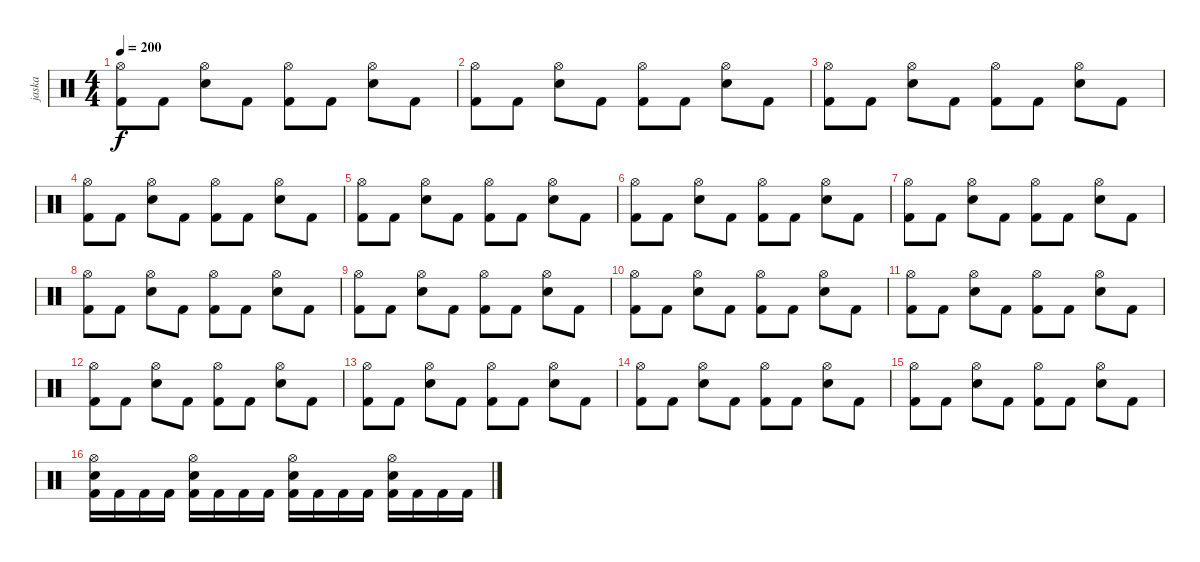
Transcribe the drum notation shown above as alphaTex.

\track ("jaska" "jaska") {instrument percussion}
\staff {score}
\articulation defaults
\ts (4 4)
\tempo 200
\clef neutral
\ks c
("Hi-Hat (open)" "Kick (hit) 2").8{dy f} "Kick (hit) 2".8 ("Hi-Hat (open)" "Electric Snare (hit)").8 "Kick (hit) 2".8 ("Hi-Hat (open)" "Kick (hit) 2").8 "Kick (hit) 2".8 ("Hi-Hat (open)" "Electric Snare (hit)").8 "Kick (hit) 2".8 |
("Hi-Hat (open)" "Kick (hit) 2").8 "Kick (hit) 2".8 ("Hi-Hat (open)" "Electric Snare (hit)").8 "Kick (hit) 2".8 ("Hi-Hat (open)" "Kick (hit) 2").8 "Kick (hit) 2".8 ("Hi-Hat (open)" "Electric Snare (hit)").8 "Kick (hit) 2".8 |
("Hi-Hat (open)" "Kick (hit) 2").8 "Kick (hit) 2".8 ("Hi-Hat (open)" "Electric Snare (hit)").8 "Kick (hit) 2".8 ("Hi-Hat (open)" "Kick (hit) 2").8 "Kick (hit) 2".8 ("Hi-Hat (open)" "Electric Snare (hit)").8 "Kick (hit) 2".8 |
("Hi-Hat (open)" "Kick (hit) 2").8 "Kick (hit) 2".8 ("Hi-Hat (open)" "Electric Snare (hit)").8 "Kick (hit) 2".8 ("Hi-Hat (open)" "Kick (hit) 2").8 "Kick (hit) 2".8 ("Hi-Hat (open)" "Electric Snare (hit)").8 "Kick (hit) 2".8 |
("Hi-Hat (open)" "Kick (hit) 2").8 "Kick (hit) 2".8 ("Hi-Hat (open)" "Electric Snare (hit)").8 "Kick (hit) 2".8 ("Hi-Hat (open)" "Kick (hit) 2").8 "Kick (hit) 2".8 ("Hi-Hat (open)" "Electric Snare (hit)").8 "Kick (hit) 2".8 |
("Hi-Hat (open)" "Kick (hit) 2").8 "Kick (hit) 2".8 ("Hi-Hat (open)" "Electric Snare (hit)").8 "Kick (hit) 2".8 ("Hi-Hat (open)" "Kick (hit) 2").8 "Kick (hit) 2".8 ("Hi-Hat (open)" "Electric Snare (hit)").8 "Kick (hit) 2".8 |
("Hi-Hat (open)" "Kick (hit) 2").8 "Kick (hit) 2".8 ("Hi-Hat (open)" "Electric Snare (hit)").8 "Kick (hit) 2".8 ("Hi-Hat (open)" "Kick (hit) 2").8 "Kick (hit) 2".8 ("Hi-Hat (open)" "Electric Snare (hit)").8 "Kick (hit) 2".8 |
("Hi-Hat (open)" "Kick (hit) 2").8 "Kick (hit) 2".8 ("Hi-Hat (open)" "Electric Snare (hit)").8 "Kick (hit) 2".8 ("Hi-Hat (open)" "Kick (hit) 2").8 "Kick (hit) 2".8 ("Hi-Hat (open)" "Electric Snare (hit)").8 "Kick (hit) 2".8 |
("Hi-Hat (open)" "Kick (hit) 2").8 "Kick (hit) 2".8 ("Hi-Hat (open)" "Electric Snare (hit)").8 "Kick (hit) 2".8 ("Hi-Hat (open)" "Kick (hit) 2").8 "Kick (hit) 2".8 ("Hi-Hat (open)" "Electric Snare (hit)").8 "Kick (hit) 2".8 |
("Hi-Hat (open)" "Kick (hit) 2").8 "Kick (hit) 2".8 ("Hi-Hat (open)" "Electric Snare (hit)").8 "Kick (hit) 2".8 ("Hi-Hat (open)" "Kick (hit) 2").8 "Kick (hit) 2".8 ("Hi-Hat (open)" "Electric Snare (hit)").8 "Kick (hit) 2".8 |
("Hi-Hat (open)" "Kick (hit) 2").8 "Kick (hit) 2".8 ("Hi-Hat (open)" "Electric Snare (hit)").8 "Kick (hit) 2".8 ("Hi-Hat (open)" "Kick (hit) 2").8 "Kick (hit) 2".8 ("Hi-Hat (open)" "Electric Snare (hit)").8 "Kick (hit) 2".8 |
("Hi-Hat (open)" "Kick (hit) 2").8 "Kick (hit) 2".8 ("Hi-Hat (open)" "Electric Snare (hit)").8 "Kick (hit) 2".8 ("Hi-Hat (open)" "Kick (hit) 2").8 "Kick (hit) 2".8 ("Hi-Hat (open)" "Electric Snare (hit)").8 "Kick (hit) 2".8 |
("Hi-Hat (open)" "Kick (hit) 2").8 "Kick (hit) 2".8 ("Hi-Hat (open)" "Electric Snare (hit)").8 "Kick (hit) 2".8 ("Hi-Hat (open)" "Kick (hit) 2").8 "Kick (hit) 2".8 ("Hi-Hat (open)" "Electric Snare (hit)").8 "Kick (hit) 2".8 |
("Hi-Hat (open)" "Kick (hit) 2").8 "Kick (hit) 2".8 ("Hi-Hat (open)" "Electric Snare (hit)").8 "Kick (hit) 2".8 ("Hi-Hat (open)" "Kick (hit) 2").8 "Kick (hit) 2".8 ("Hi-Hat (open)" "Electric Snare (hit)").8 "Kick (hit) 2".8 |
("Hi-Hat (open)" "Kick (hit) 2").8 "Kick (hit) 2".8 ("Hi-Hat (open)" "Electric Snare (hit)").8 "Kick (hit) 2".8 ("Hi-Hat (open)" "Kick (hit) 2").8 "Kick (hit) 2".8 ("Hi-Hat (open)" "Electric Snare (hit)").8 "Kick (hit) 2".8 |
("Hi-Hat (open)" "Snare (hit) 2" "Kick (hit) 2").16 "Kick (hit) 2".16 "Kick (hit) 2".16 "Kick (hit) 2".16 ("Hi-Hat (open)" "Snare (hit) 2" "Kick (hit) 2").16 "Kick (hit) 2".16 "Kick (hit) 2".16 "Kick (hit) 2".16 ("Hi-Hat (open)" "Snare (hit) 2" "Kick (hit) 2").16 "Kick (hit) 2".16 "Kick (hit) 2".16 "Kick (hit) 2".16 ("Hi-Hat (open)" "Snare (hit) 2" "Kick (hit) 2").16 "Kick (hit) 2".16 "Kick (hit) 2".16 "Kick (hit) 2".16
